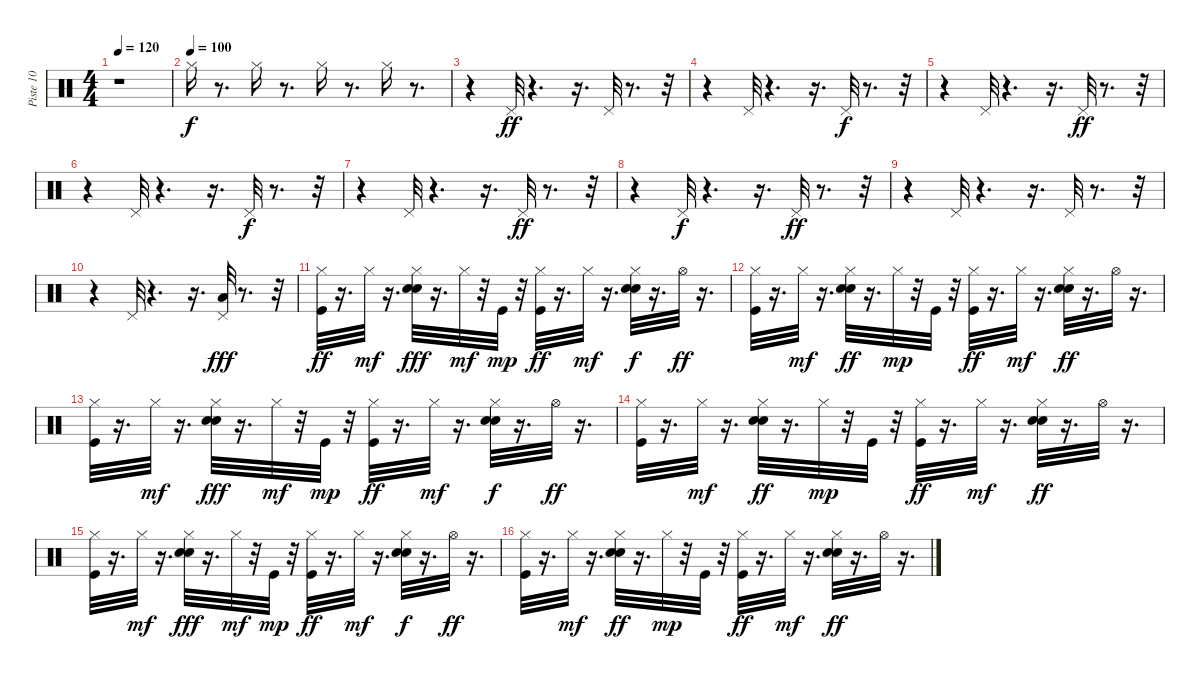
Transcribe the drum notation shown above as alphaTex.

\track ("Piste 10" "Piste 10") {instrument percussion}
\staff {score}
\articulation defaults
\ts (4 4)
\tempo 120
\clef neutral
\ks c
r.1{dy f} |
\tempo (100)
"Hi-Hat (closed)".16 r.8{d} "Hi-Hat (closed)".16 r.8{d} "Hi-Hat (closed)".16 r.8{d} "Hi-Hat (closed)".16 r.8{d} |
r.4 "Pedal Hi-Hat (hit)".32{dy ff} r.4{d} r.16{d} "Pedal Hi-Hat (hit)".32 r.8{d} r.32 |
r.4 "Pedal Hi-Hat (hit)".32 r.4{d} r.16{d} "Pedal Hi-Hat (hit)".32{dy f} r.8{d} r.32 |
r.4 "Pedal Hi-Hat (hit)".32 r.4{d} r.16{d} "Pedal Hi-Hat (hit)".32{dy ff} r.8{d} r.32 |
r.4 "Pedal Hi-Hat (hit)".32 r.4{d} r.16{d} "Pedal Hi-Hat (hit)".32{dy f} r.8{d} r.32 |
r.4 "Pedal Hi-Hat (hit)".32 r.4{d} r.16{d} "Pedal Hi-Hat (hit)".32{dy ff} r.8{d} r.32 |
r.4 "Pedal Hi-Hat (hit)".32{dy f} r.4{d} r.16{d} "Pedal Hi-Hat (hit)".32{dy ff} r.8{d} r.32 |
r.4 "Pedal Hi-Hat (hit)".32 r.4{d} r.16{d} "Pedal Hi-Hat (hit)".32 r.8{d} r.32 |
r.4 "Pedal Hi-Hat (hit)".32 r.4{d} r.16{d} ("Pedal Hi-Hat (hit)" "Low Floor Tom (hit)").32{dy fff} r.8{d} r.32 |
("Kick (hit)" "Hi-Hat (closed)").32{dy ff} r.16{d} "Hi-Hat (closed)".32{dy mf} r.16{d} ("Hi-Hat (closed)" "Electric Snare (hit)" "Hand Clap (hit)").32{dy fff} r.16{d} "Hi-Hat (closed)".32{dy mf} r.32 "Kick (hit)".32{dy mp} r.32 ("Hi-Hat (closed)" "Kick (hit)").32{dy ff} r.16{d} "Hi-Hat (closed)".32{dy mf} r.16{d} ("Hi-Hat (closed)" "Electric Snare (hit)" "Hand Clap (hit)").32{dy f} r.16{d} "Hi-Hat (open)".32{dy ff} r.16{d} |
("Hi-Hat (closed)" "Kick (hit)").32 r.16{d} "Hi-Hat (closed)".32{dy mf} r.16{d} ("Hi-Hat (closed)" "Electric Snare (hit)" "Hand Clap (hit)").32{dy ff} r.16{d} "Hi-Hat (closed)".32{dy mp} r.32 "Kick (hit)".32 r.32 ("Hi-Hat (closed)" "Kick (hit)").32{dy ff} r.16{d} "Hi-Hat (closed)".32{dy mf} r.16{d} ("Hi-Hat (closed)" "Electric Snare (hit)" "Hand Clap (hit)").32{dy ff} r.16{d} "Hi-Hat (open)".32 r.16{d} |
("Kick (hit)" "Hi-Hat (closed)").32 r.16{d} "Hi-Hat (closed)".32{dy mf} r.16{d} ("Hi-Hat (closed)" "Electric Snare (hit)" "Hand Clap (hit)").32{dy fff} r.16{d} "Hi-Hat (closed)".32{dy mf} r.32 "Kick (hit)".32{dy mp} r.32 ("Hi-Hat (closed)" "Kick (hit)").32{dy ff} r.16{d} "Hi-Hat (closed)".32{dy mf} r.16{d} ("Hi-Hat (closed)" "Electric Snare (hit)" "Hand Clap (hit)").32{dy f} r.16{d} "Hi-Hat (open)".32{dy ff} r.16{d} |
("Hi-Hat (closed)" "Kick (hit)").32 r.16{d} "Hi-Hat (closed)".32{dy mf} r.16{d} ("Hi-Hat (closed)" "Electric Snare (hit)" "Hand Clap (hit)").32{dy ff} r.16{d} "Hi-Hat (closed)".32{dy mp} r.32 "Kick (hit)".32 r.32 ("Hi-Hat (closed)" "Kick (hit)").32{dy ff} r.16{d} "Hi-Hat (closed)".32{dy mf} r.16{d} ("Hi-Hat (closed)" "Electric Snare (hit)" "Hand Clap (hit)").32{dy ff} r.16{d} "Hi-Hat (open)".32 r.16{d} |
("Kick (hit)" "Hi-Hat (closed)").32 r.16{d} "Hi-Hat (closed)".32{dy mf} r.16{d} ("Hi-Hat (closed)" "Electric Snare (hit)" "Hand Clap (hit)").32{dy fff} r.16{d} "Hi-Hat (closed)".32{dy mf} r.32 "Kick (hit)".32{dy mp} r.32 ("Hi-Hat (closed)" "Kick (hit)").32{dy ff} r.16{d} "Hi-Hat (closed)".32{dy mf} r.16{d} ("Hi-Hat (closed)" "Electric Snare (hit)" "Hand Clap (hit)").32{dy f} r.16{d} "Hi-Hat (open)".32{dy ff} r.16{d} |
("Hi-Hat (closed)" "Kick (hit)").32 r.16{d} "Hi-Hat (closed)".32{dy mf} r.16{d} ("Hi-Hat (closed)" "Electric Snare (hit)" "Hand Clap (hit)").32{dy ff} r.16{d} "Hi-Hat (closed)".32{dy mp} r.32 "Kick (hit)".32 r.32 ("Hi-Hat (closed)" "Kick (hit)").32{dy ff} r.16{d} "Hi-Hat (closed)".32{dy mf} r.16{d} ("Hi-Hat (closed)" "Electric Snare (hit)" "Hand Clap (hit)").32{dy ff} r.16{d} "Hi-Hat (open)".32 r.16{d}
